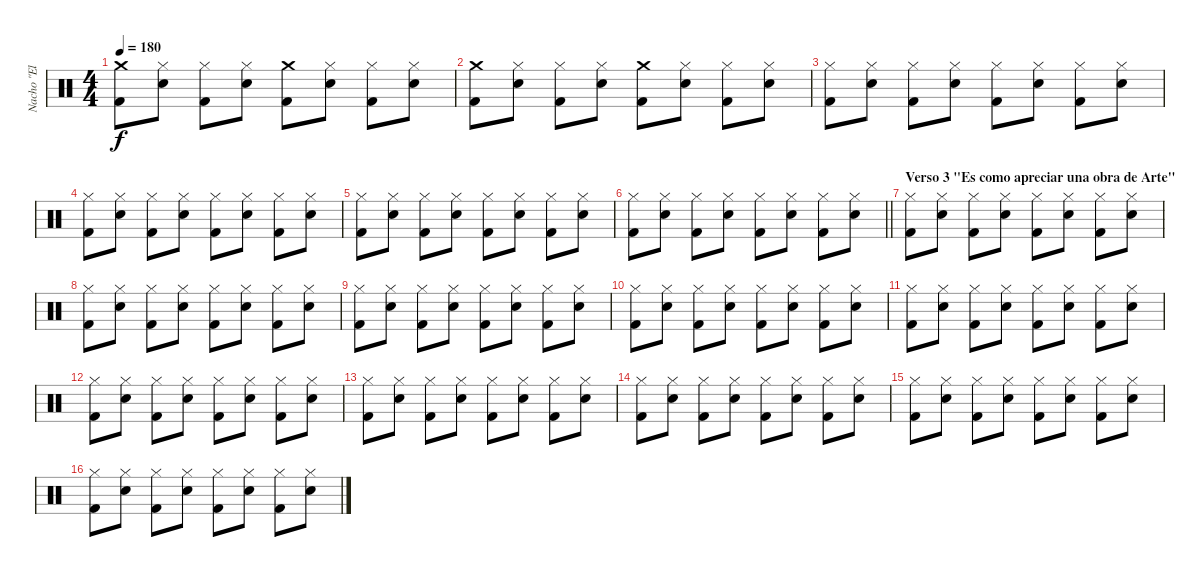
\track ("Nacho \"El Implacable\"Gonzales" "Nacho \"El ") {instrument percussion}
\staff {score}
\articulation defaults
\ts (4 4)
\tempo 180
\clef neutral
\ks c
("Crash medium (hit)" "Kick (hit) 2").8{dy f} ("Hi-Hat (closed)" "Electric Snare (hit)").8 ("Hi-Hat (closed)" "Kick (hit) 2").8 ("Hi-Hat (closed)" "Electric Snare (hit)").8 ("Crash medium (hit)" "Kick (hit) 2").8 ("Hi-Hat (closed)" "Electric Snare (hit)").8 ("Hi-Hat (closed)" "Kick (hit) 2").8 ("Hi-Hat (closed)" "Electric Snare (hit)").8 |
("Crash medium (hit)" "Kick (hit) 2").8 ("Hi-Hat (closed)" "Electric Snare (hit)").8 ("Hi-Hat (closed)" "Kick (hit) 2").8 ("Hi-Hat (closed)" "Electric Snare (hit)").8 ("Crash medium (hit)" "Kick (hit) 2").8 ("Hi-Hat (closed)" "Electric Snare (hit)").8 ("Hi-Hat (closed)" "Kick (hit) 2").8 ("Hi-Hat (closed)" "Electric Snare (hit)").8 |
("Hi-Hat (closed)" "Kick (hit) 2").8 ("Hi-Hat (closed)" "Electric Snare (hit)").8 ("Hi-Hat (closed)" "Kick (hit) 2").8 ("Hi-Hat (closed)" "Electric Snare (hit)").8 ("Hi-Hat (closed)" "Kick (hit) 2").8 ("Hi-Hat (closed)" "Electric Snare (hit)").8 ("Hi-Hat (closed)" "Kick (hit) 2").8 ("Hi-Hat (closed)" "Electric Snare (hit)").8 |
("Hi-Hat (closed)" "Kick (hit) 2").8 ("Hi-Hat (closed)" "Electric Snare (hit)").8 ("Hi-Hat (closed)" "Kick (hit) 2").8 ("Hi-Hat (closed)" "Electric Snare (hit)").8 ("Hi-Hat (closed)" "Kick (hit) 2").8 ("Hi-Hat (closed)" "Electric Snare (hit)").8 ("Hi-Hat (closed)" "Kick (hit) 2").8 ("Hi-Hat (closed)" "Electric Snare (hit)").8 |
("Hi-Hat (closed)" "Kick (hit) 2").8 ("Hi-Hat (closed)" "Electric Snare (hit)").8 ("Hi-Hat (closed)" "Kick (hit) 2").8 ("Hi-Hat (closed)" "Electric Snare (hit)").8 ("Hi-Hat (closed)" "Kick (hit) 2").8 ("Hi-Hat (closed)" "Electric Snare (hit)").8 ("Hi-Hat (closed)" "Kick (hit) 2").8 ("Hi-Hat (closed)" "Electric Snare (hit)").8 |
\barLineRight lightlight
("Hi-Hat (closed)" "Kick (hit) 2").8 ("Hi-Hat (closed)" "Electric Snare (hit)").8 ("Hi-Hat (closed)" "Kick (hit) 2").8 ("Hi-Hat (closed)" "Electric Snare (hit)").8 ("Hi-Hat (closed)" "Kick (hit) 2").8 ("Hi-Hat (closed)" "Electric Snare (hit)").8 ("Hi-Hat (closed)" "Kick (hit) 2").8 ("Hi-Hat (closed)" "Electric Snare (hit)").8 |
\section ("" "Verso 3 \"Es como apreciar una obra de Arte\"")
("Hi-Hat (closed)" "Kick (hit) 2").8 ("Hi-Hat (closed)" "Electric Snare (hit)").8 ("Hi-Hat (closed)" "Kick (hit) 2").8 ("Hi-Hat (closed)" "Electric Snare (hit)").8 ("Hi-Hat (closed)" "Kick (hit) 2").8 ("Hi-Hat (closed)" "Electric Snare (hit)").8 ("Hi-Hat (closed)" "Kick (hit) 2").8 ("Hi-Hat (closed)" "Electric Snare (hit)").8 |
("Hi-Hat (closed)" "Kick (hit) 2").8 ("Hi-Hat (closed)" "Electric Snare (hit)").8 ("Hi-Hat (closed)" "Kick (hit) 2").8 ("Hi-Hat (closed)" "Electric Snare (hit)").8 ("Hi-Hat (closed)" "Kick (hit) 2").8 ("Hi-Hat (closed)" "Electric Snare (hit)").8 ("Hi-Hat (closed)" "Kick (hit) 2").8 ("Hi-Hat (closed)" "Electric Snare (hit)").8 |
("Hi-Hat (closed)" "Kick (hit) 2").8 ("Hi-Hat (closed)" "Electric Snare (hit)").8 ("Hi-Hat (closed)" "Kick (hit) 2").8 ("Hi-Hat (closed)" "Electric Snare (hit)").8 ("Hi-Hat (closed)" "Kick (hit) 2").8 ("Hi-Hat (closed)" "Electric Snare (hit)").8 ("Hi-Hat (closed)" "Kick (hit) 2").8 ("Hi-Hat (closed)" "Electric Snare (hit)").8 |
("Hi-Hat (closed)" "Kick (hit) 2").8 ("Hi-Hat (closed)" "Electric Snare (hit)").8 ("Hi-Hat (closed)" "Kick (hit) 2").8 ("Hi-Hat (closed)" "Electric Snare (hit)").8 ("Hi-Hat (closed)" "Kick (hit) 2").8 ("Hi-Hat (closed)" "Electric Snare (hit)").8 ("Hi-Hat (closed)" "Kick (hit) 2").8 ("Hi-Hat (closed)" "Electric Snare (hit)").8 |
("Hi-Hat (closed)" "Kick (hit) 2").8 ("Hi-Hat (closed)" "Electric Snare (hit)").8 ("Hi-Hat (closed)" "Kick (hit) 2").8 ("Hi-Hat (closed)" "Electric Snare (hit)").8 ("Hi-Hat (closed)" "Kick (hit) 2").8 ("Hi-Hat (closed)" "Electric Snare (hit)").8 ("Hi-Hat (closed)" "Kick (hit) 2").8 ("Hi-Hat (closed)" "Electric Snare (hit)").8 |
("Hi-Hat (closed)" "Kick (hit) 2").8 ("Hi-Hat (closed)" "Electric Snare (hit)").8 ("Hi-Hat (closed)" "Kick (hit) 2").8 ("Hi-Hat (closed)" "Electric Snare (hit)").8 ("Hi-Hat (closed)" "Kick (hit) 2").8 ("Hi-Hat (closed)" "Electric Snare (hit)").8 ("Hi-Hat (closed)" "Kick (hit) 2").8 ("Hi-Hat (closed)" "Electric Snare (hit)").8 |
("Hi-Hat (closed)" "Kick (hit) 2").8 ("Hi-Hat (closed)" "Electric Snare (hit)").8 ("Hi-Hat (closed)" "Kick (hit) 2").8 ("Hi-Hat (closed)" "Electric Snare (hit)").8 ("Hi-Hat (closed)" "Kick (hit) 2").8 ("Hi-Hat (closed)" "Electric Snare (hit)").8 ("Hi-Hat (closed)" "Kick (hit) 2").8 ("Hi-Hat (closed)" "Electric Snare (hit)").8 |
("Hi-Hat (closed)" "Kick (hit) 2").8 ("Hi-Hat (closed)" "Electric Snare (hit)").8 ("Hi-Hat (closed)" "Kick (hit) 2").8 ("Hi-Hat (closed)" "Electric Snare (hit)").8 ("Hi-Hat (closed)" "Kick (hit) 2").8 ("Hi-Hat (closed)" "Electric Snare (hit)").8 ("Hi-Hat (closed)" "Kick (hit) 2").8 ("Hi-Hat (closed)" "Electric Snare (hit)").8 |
("Hi-Hat (closed)" "Kick (hit) 2").8 ("Hi-Hat (closed)" "Electric Snare (hit)").8 ("Hi-Hat (closed)" "Kick (hit) 2").8 ("Hi-Hat (closed)" "Electric Snare (hit)").8 ("Hi-Hat (closed)" "Kick (hit) 2").8 ("Hi-Hat (closed)" "Electric Snare (hit)").8 ("Hi-Hat (closed)" "Kick (hit) 2").8 ("Hi-Hat (closed)" "Electric Snare (hit)").8 |
("Hi-Hat (closed)" "Kick (hit) 2").8 ("Hi-Hat (closed)" "Electric Snare (hit)").8 ("Hi-Hat (closed)" "Kick (hit) 2").8 ("Hi-Hat (closed)" "Electric Snare (hit)").8 ("Hi-Hat (closed)" "Kick (hit) 2").8 ("Hi-Hat (closed)" "Electric Snare (hit)").8 ("Hi-Hat (closed)" "Kick (hit) 2").8 ("Hi-Hat (closed)" "Electric Snare (hit)").8
